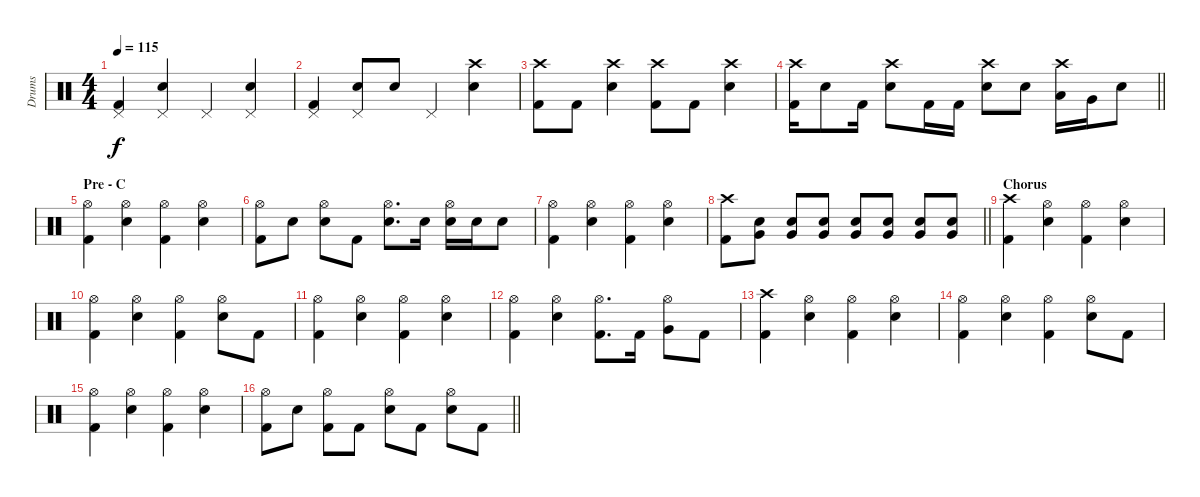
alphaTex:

\track ("Drums" "Drums") {instrument percussion}
\staff {score}
\articulation defaults
\ts (4 4)
\tempo 115
\clef neutral
\ks c
("Pedal Hi-Hat (hit)" "Kick (hit) 2").4{dy f} ("Pedal Hi-Hat (hit)" "Snare (hit) 2").4 "Pedal Hi-Hat (hit)".4 ("Pedal Hi-Hat (hit)" "Snare (hit) 2").4 |
("Pedal Hi-Hat (hit)" "Kick (hit) 2").4 ("Pedal Hi-Hat (hit)" "Snare (hit) 2").8 "Snare (hit) 2".8 "Pedal Hi-Hat (hit)".4 ("Crash high (hit)" "Snare (hit) 2").4 |
("Crash high (hit)" "Kick (hit) 2").8 "Kick (hit) 2".8 ("Crash high (hit)" "Snare (hit) 2").4 ("Crash high (hit)" "Kick (hit) 2").8 "Kick (hit) 2".8 ("Crash high (hit)" "Snare (hit) 2").4 |
\barLineRight lightlight
("Crash high (hit)" "Kick (hit) 2").16 "Snare (hit) 2".8 "Kick (hit) 2".16 ("Crash high (hit)" "Snare (hit) 2").8 "Kick (hit) 2".16 "Kick (hit) 2".16 ("Crash high (hit)" "Snare (hit) 2").8 "Snare (hit) 2".8 ("Crash high (hit)" "Low Tom (hit)").16 "Very Low Tom (hit)".16 "Snare (hit) 2".8 |
\section ("" "Pre - C")
("Hi-Hat (open)" "Kick (hit) 2").4 ("Hi-Hat (open)" "Snare (hit) 2").4 ("Hi-Hat (open)" "Kick (hit) 2").4 ("Hi-Hat (open)" "Snare (hit) 2").4 |
("Hi-Hat (open)" "Kick (hit) 2").8 "Snare (hit) 2".8 ("Hi-Hat (open)" "Snare (hit) 2").8 "Kick (hit) 2".8 ("Hi-Hat (open)" "Snare (hit) 2").8{d} "Snare (hit) 2".16 ("Hi-Hat (open)" "Snare (hit) 2").16 "Snare (hit) 2".16 "Snare (hit) 2".8 |
("Hi-Hat (open)" "Kick (hit) 2").4 ("Hi-Hat (open)" "Snare (hit) 2").4 ("Hi-Hat (open)" "Kick (hit) 2").4 ("Hi-Hat (open)" "Snare (hit) 2").4 |
\barLineRight lightlight
("Crash high (hit)" "Kick (hit) 2").8 ("Very Low Tom (hit)" "Snare (hit) 2").8 ("Very Low Tom (hit)" "Snare (hit) 2").8 ("Very Low Tom (hit)" "Snare (hit) 2").8 ("Very Low Tom (hit)" "Snare (hit) 2").8 ("Very Low Tom (hit)" "Snare (hit) 2").8 ("Very Low Tom (hit)" "Snare (hit) 2").8 ("Very Low Tom (hit)" "Snare (hit) 2").8 |
\section ("" "Chorus")
("Crash high (hit)" "Kick (hit) 2").4 ("Hi-Hat (open)" "Snare (hit) 2").4 ("Hi-Hat (open)" "Kick (hit) 2").4 ("Hi-Hat (open)" "Snare (hit) 2").4 |
("Hi-Hat (open)" "Kick (hit) 2").4 ("Hi-Hat (open)" "Snare (hit) 2").4 ("Hi-Hat (open)" "Kick (hit) 2").4 ("Hi-Hat (open)" "Snare (hit) 2").8 "Kick (hit) 2".8 |
("Hi-Hat (open)" "Kick (hit) 2").4 ("Hi-Hat (open)" "Snare (hit) 2").4 ("Hi-Hat (open)" "Kick (hit) 2").4 ("Hi-Hat (open)" "Snare (hit) 2").4 |
("Hi-Hat (open)" "Kick (hit) 2").4 ("Hi-Hat (open)" "Snare (hit) 2").4 ("Hi-Hat (open)" "Kick (hit) 2").8{d} "Kick (hit) 2".16 ("Hi-Hat (open)" "Very Low Tom (hit)").8 "Kick (hit) 2".8 |
("Crash high (hit)" "Kick (hit) 2").4 ("Hi-Hat (open)" "Snare (hit) 2").4 ("Hi-Hat (open)" "Kick (hit) 2").4 ("Hi-Hat (open)" "Snare (hit) 2").4 |
("Hi-Hat (open)" "Kick (hit) 2").4 ("Hi-Hat (open)" "Snare (hit) 2").4 ("Hi-Hat (open)" "Kick (hit) 2").4 ("Hi-Hat (open)" "Snare (hit) 2").8 "Kick (hit) 2".8 |
("Hi-Hat (open)" "Kick (hit) 2").4 ("Hi-Hat (open)" "Snare (hit) 2").4 ("Hi-Hat (open)" "Kick (hit) 2").4 ("Hi-Hat (open)" "Snare (hit) 2").4 |
\barLineRight lightlight
("Hi-Hat (open)" "Kick (hit) 2").8 "Snare (hit) 2".8 ("Hi-Hat (open)" "Kick (hit) 2").8 "Kick (hit) 2".8 ("Hi-Hat (open)" "Snare (hit) 2").8 "Kick (hit) 2".8 ("Hi-Hat (open)" "Snare (hit) 2").8 "Kick (hit) 2".8
